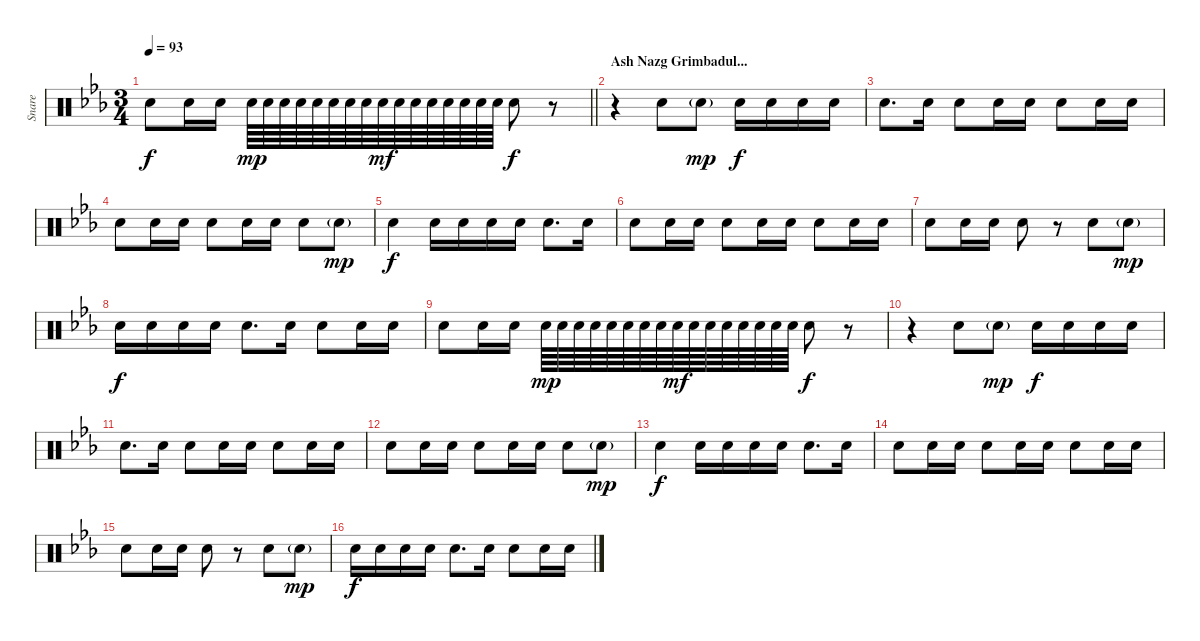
\track ("Snare" "Snare") {instrument percussion}
\staff {score}
\articulation defaults
\ts (3 4)
\tempo 93
\clef neutral
\barLineRight lightlight
\ks cminor "Electric Snare (hit)".8{dy f} "Electric Snare (hit)".16 "Electric Snare (hit)".16 "Electric Snare (hit)".64{dy mp} "Electric Snare (hit)".64 "Electric Snare (hit)".64 "Electric Snare (hit)".64 "Electric Snare (hit)".64 "Electric Snare (hit)".64 "Electric Snare (hit)".64 "Electric Snare (hit)".64 "Electric Snare (hit)".64{dy mf} "Electric Snare (hit)".64 "Electric Snare (hit)".64 "Electric Snare (hit)".64 "Electric Snare (hit)".64 "Electric Snare (hit)".64 "Electric Snare (hit)".64 "Electric Snare (hit)".64 "Electric Snare (hit)".8{dy f}
r.8 |
\section ("" "Ash Nazg Grimbadul...")
r.4 "Electric Snare (hit)".8 "Electric Snare (hit)"{g}.8{dy mp} "Electric Snare (hit)".16{dy f} "Electric Snare (hit)".16 "Electric Snare (hit)".16 "Electric Snare (hit)".16 |
"Electric Snare (hit)".8{d} "Electric Snare (hit)".16 "Electric Snare (hit)".8 "Electric Snare (hit)".16 "Electric Snare (hit)".16 "Electric Snare (hit)".8 "Electric Snare (hit)".16 "Electric Snare (hit)".16 |
"Electric Snare (hit)".8 "Electric Snare (hit)".16 "Electric Snare (hit)".16 "Electric Snare (hit)".8 "Electric Snare (hit)".16 "Electric Snare (hit)".16 "Electric Snare (hit)".8 "Electric Snare (hit)"{g}.8{dy mp} |
"Electric Snare (hit)".4{dy f} "Electric Snare (hit)".16 "Electric Snare (hit)".16 "Electric Snare (hit)".16 "Electric Snare (hit)".16 "Electric Snare (hit)".8{d} "Electric Snare (hit)".16 |
"Electric Snare (hit)".8 "Electric Snare (hit)".16 "Electric Snare (hit)".16 "Electric Snare (hit)".8 "Electric Snare (hit)".16 "Electric Snare (hit)".16 "Electric Snare (hit)".8 "Electric Snare (hit)".16 "Electric Snare (hit)".16 |
"Electric Snare (hit)".8 "Electric Snare (hit)".16 "Electric Snare (hit)".16 "Electric Snare (hit)".8 r.8 "Electric Snare (hit)".8 "Electric Snare (hit)"{g}.8{dy mp} |
"Electric Snare (hit)".16{dy f} "Electric Snare (hit)".16 "Electric Snare (hit)".16 "Electric Snare (hit)".16 "Electric Snare (hit)".8{d} "Electric Snare (hit)".16 "Electric Snare (hit)".8 "Electric Snare (hit)".16 "Electric Snare (hit)".16 |
"Electric Snare (hit)".8 "Electric Snare (hit)".16 "Electric Snare (hit)".16 "Electric Snare (hit)".64{dy mp} "Electric Snare (hit)".64 "Electric Snare (hit)".64 "Electric Snare (hit)".64 "Electric Snare (hit)".64 "Electric Snare (hit)".64 "Electric Snare (hit)".64 "Electric Snare (hit)".64 "Electric Snare (hit)".64{dy mf} "Electric Snare (hit)".64 "Electric Snare (hit)".64 "Electric Snare (hit)".64 "Electric Snare (hit)".64 "Electric Snare (hit)".64 "Electric Snare (hit)".64 "Electric Snare (hit)".64 "Electric Snare (hit)".8{dy f} r.8 |
r.4 "Electric Snare (hit)".8 "Electric Snare (hit)"{g}.8{dy mp} "Electric Snare (hit)".16{dy f} "Electric Snare (hit)".16 "Electric Snare (hit)".16 "Electric Snare (hit)".16 |
"Electric Snare (hit)".8{d} "Electric Snare (hit)".16 "Electric Snare (hit)".8 "Electric Snare (hit)".16 "Electric Snare (hit)".16 "Electric Snare (hit)".8 "Electric Snare (hit)".16 "Electric Snare (hit)".16 |
"Electric Snare (hit)".8 "Electric Snare (hit)".16 "Electric Snare (hit)".16 "Electric Snare (hit)".8 "Electric Snare (hit)".16 "Electric Snare (hit)".16 "Electric Snare (hit)".8 "Electric Snare (hit)"{g}.8{dy mp} |
"Electric Snare (hit)".4{dy f} "Electric Snare (hit)".16 "Electric Snare (hit)".16 "Electric Snare (hit)".16 "Electric Snare (hit)".16 "Electric Snare (hit)".8{d} "Electric Snare (hit)".16 |
"Electric Snare (hit)".8 "Electric Snare (hit)".16 "Electric Snare (hit)".16 "Electric Snare (hit)".8 "Electric Snare (hit)".16 "Electric Snare (hit)".16 "Electric Snare (hit)".8 "Electric Snare (hit)".16 "Electric Snare (hit)".16 |
"Electric Snare (hit)".8 "Electric Snare (hit)".16 "Electric Snare (hit)".16 "Electric Snare (hit)".8 r.8 "Electric Snare (hit)".8 "Electric Snare (hit)"{g}.8{dy mp} |
"Electric Snare (hit)".16{dy f} "Electric Snare (hit)".16 "Electric Snare (hit)".16 "Electric Snare (hit)".16 "Electric Snare (hit)".8{d} "Electric Snare (hit)".16 "Electric Snare (hit)".8 "Electric Snare (hit)".16 "Electric Snare (hit)".16
